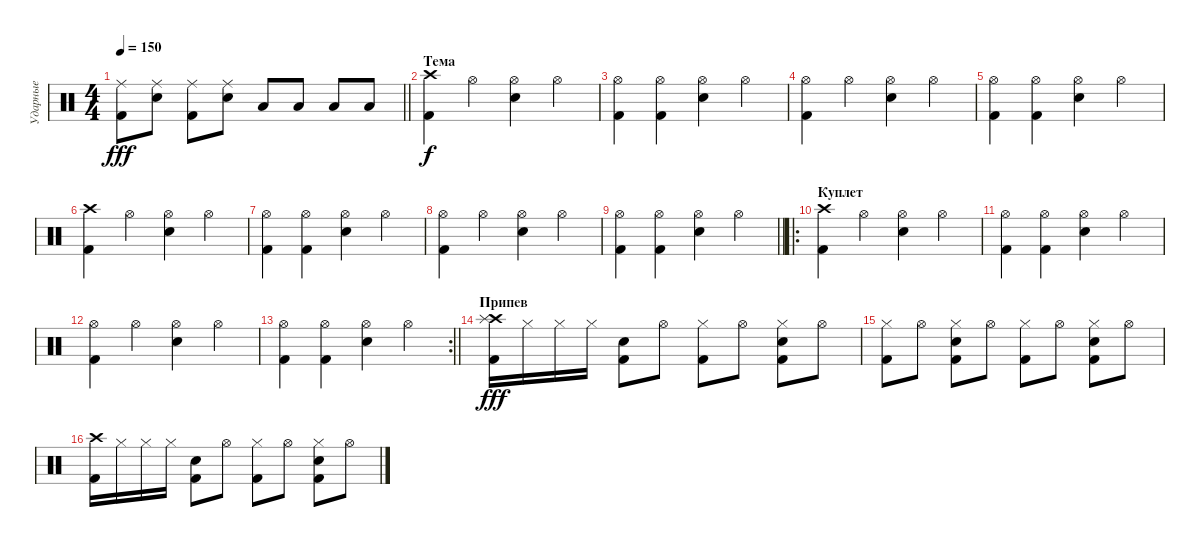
\track ("Ударные" "Ударные") {instrument percussion}
\staff {score}
\articulation defaults
\ts (4 4)
\tempo 150
\clef neutral
\barLineRight lightlight
\ks c
("Ride (middle)" "Kick (hit) 2").8{dy fff} ("Ride (middle)" "Electric Snare (hit)").8 ("Ride (middle)" "Kick (hit) 2").8 ("Ride (middle)" "Electric Snare (hit)").8 "Low Tom (hit)".8 "Low Tom (hit)".8 "Low Floor Tom (hit)".8 "Low Floor Tom (hit)".8 |
\section ("" "Тема")
("Kick (hit) 2" "Crash high (hit)").4{dy f} "Hi-Hat (open)".4 ("Electric Snare (hit)" "Hi-Hat (open)").4 "Hi-Hat (open)".4 |
("Kick (hit) 2" "Hi-Hat (open)").4 ("Kick (hit) 2" "Hi-Hat (open)").4 ("Electric Snare (hit)" "Hi-Hat (open)").4 "Hi-Hat (open)".4 |
("Kick (hit) 2" "Hi-Hat (open)").4 "Hi-Hat (open)".4 ("Electric Snare (hit)" "Hi-Hat (open)").4 "Hi-Hat (open)".4 |
("Kick (hit) 2" "Hi-Hat (open)").4 ("Kick (hit) 2" "Hi-Hat (open)").4 ("Electric Snare (hit)" "Hi-Hat (open)").4 "Hi-Hat (open)".4 |
("Kick (hit) 2" "Crash high (hit)").4 "Hi-Hat (open)".4 ("Electric Snare (hit)" "Hi-Hat (open)").4 "Hi-Hat (open)".4 |
("Kick (hit) 2" "Hi-Hat (open)").4 ("Kick (hit) 2" "Hi-Hat (open)").4 ("Electric Snare (hit)" "Hi-Hat (open)").4 "Hi-Hat (open)".4 |
("Kick (hit) 2" "Hi-Hat (open)").4 "Hi-Hat (open)".4 ("Electric Snare (hit)" "Hi-Hat (open)").4 "Hi-Hat (open)".4 |
\barLineRight lightlight
("Kick (hit) 2" "Hi-Hat (open)").4 ("Kick (hit) 2" "Hi-Hat (open)").4 ("Electric Snare (hit)" "Hi-Hat (open)").4 "Hi-Hat (open)".4 |
\ro
\section ("" "Куплет")
("Kick (hit) 2" "Crash high (hit)").4 "Hi-Hat (open)".4 ("Electric Snare (hit)" "Hi-Hat (open)").4 "Hi-Hat (open)".4 |
("Kick (hit) 2" "Hi-Hat (open)").4 ("Kick (hit) 2" "Hi-Hat (open)").4 ("Electric Snare (hit)" "Hi-Hat (open)").4 "Hi-Hat (open)".4 |
("Kick (hit) 2" "Hi-Hat (open)").4 "Hi-Hat (open)".4 ("Electric Snare (hit)" "Hi-Hat (open)").4 "Hi-Hat (open)".4 |
\rc 2
\barLineRight lightlight
("Kick (hit) 2" "Hi-Hat (open)").4 ("Kick (hit) 2" "Hi-Hat (open)").4 ("Electric Snare (hit)" "Hi-Hat (open)").4 "Hi-Hat (open)".4 |
\section ("" "Припев")
("Crash high (hit)" "Kick (hit) 2" "Splash (hit)").16{dy fff} "Hi-Hat (closed)".16 "Hi-Hat (closed)".16 "Hi-Hat (closed)".16 ("Electric Snare (hit)" "Kick (hit) 2").8 "Hi-Hat (open)".8 ("Hi-Hat (closed)" "Kick (hit) 2").8 "Hi-Hat (open)".8 ("Hi-Hat (closed)" "Electric Snare (hit)" "Kick (hit) 2").8 "Hi-Hat (open)".8 |
("Hi-Hat (closed)" "Kick (hit) 2").8 "Hi-Hat (open)".8 ("Hi-Hat (closed)" "Electric Snare (hit)" "Kick (hit) 2").8 "Hi-Hat (open)".8 ("Hi-Hat (closed)" "Kick (hit) 2").8 "Hi-Hat (open)".8 ("Hi-Hat (closed)" "Electric Snare (hit)" "Kick (hit) 2").8 "Hi-Hat (open)".8 |
("Crash high (hit)" "Kick (hit) 2").16 "Hi-Hat (closed)".16 "Hi-Hat (closed)".16 "Hi-Hat (closed)".16 ("Electric Snare (hit)" "Kick (hit) 2").8 "Hi-Hat (open)".8 ("Hi-Hat (closed)" "Kick (hit) 2").8 "Hi-Hat (open)".8 ("Hi-Hat (closed)" "Electric Snare (hit)" "Kick (hit) 2").8 "Hi-Hat (open)".8
